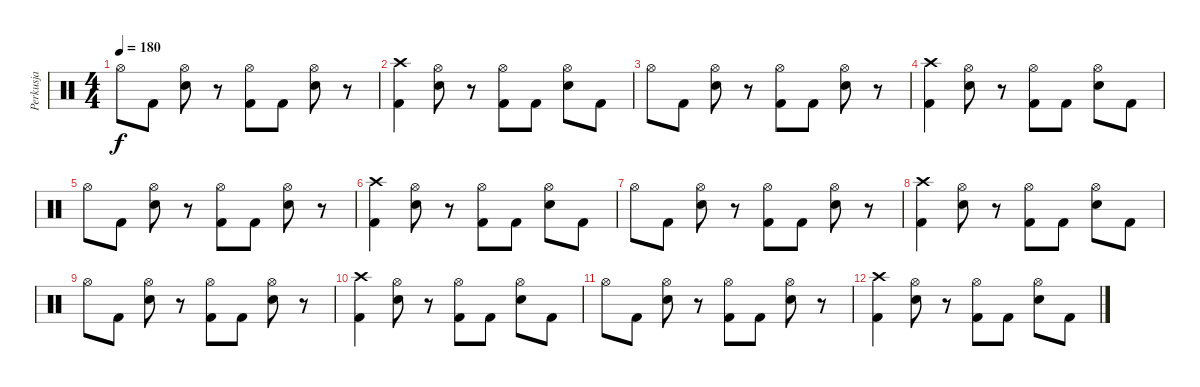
\track ("Perkusja" "Perkusja") {instrument percussion}
\staff {score}
\articulation defaults
\ts (4 4)
\tempo 180
\clef neutral
\ks c "Hi-Hat (open)".8{dy f} "Kick (hit) 2".8
("Hi-Hat (open)" "Electric Snare (hit)").8 r.8 ("Hi-Hat (open)" "Kick (hit) 2").8 "Kick (hit) 2".8 ("Hi-Hat (open)" "Electric Snare (hit)").8 r.8 |
("Crash high (hit)" "Kick (hit) 2").4 ("Hi-Hat (open)" "Electric Snare (hit)").8 r.8 ("Hi-Hat (open)" "Kick (hit) 2").8 "Kick (hit) 2".8 ("Hi-Hat (open)" "Electric Snare (hit)").8 "Kick (hit) 2".8 |
"Hi-Hat (open)".8 "Kick (hit) 2".8 ("Hi-Hat (open)" "Electric Snare (hit)").8 r.8 ("Hi-Hat (open)" "Kick (hit) 2").8 "Kick (hit) 2".8 ("Hi-Hat (open)" "Electric Snare (hit)").8 r.8 |
("Crash high (hit)" "Kick (hit) 2").4 ("Hi-Hat (open)" "Electric Snare (hit)").8 r.8 ("Hi-Hat (open)" "Kick (hit) 2").8 "Kick (hit) 2".8 ("Hi-Hat (open)" "Electric Snare (hit)").8 "Kick (hit) 2".8 |
"Hi-Hat (open)".8 "Kick (hit) 2".8 ("Hi-Hat (open)" "Electric Snare (hit)").8 r.8 ("Hi-Hat (open)" "Kick (hit) 2").8 "Kick (hit) 2".8 ("Hi-Hat (open)" "Electric Snare (hit)").8 r.8 |
("Crash high (hit)" "Kick (hit) 2").4 ("Hi-Hat (open)" "Electric Snare (hit)").8 r.8 ("Hi-Hat (open)" "Kick (hit) 2").8 "Kick (hit) 2".8 ("Hi-Hat (open)" "Electric Snare (hit)").8 "Kick (hit) 2".8 |
"Hi-Hat (open)".8 "Kick (hit) 2".8 ("Hi-Hat (open)" "Electric Snare (hit)").8 r.8 ("Hi-Hat (open)" "Kick (hit) 2").8 "Kick (hit) 2".8 ("Hi-Hat (open)" "Electric Snare (hit)").8 r.8 |
("Crash high (hit)" "Kick (hit) 2").4 ("Hi-Hat (open)" "Electric Snare (hit)").8 r.8 ("Hi-Hat (open)" "Kick (hit) 2").8 "Kick (hit) 2".8 ("Hi-Hat (open)" "Electric Snare (hit)").8 "Kick (hit) 2".8 |
"Hi-Hat (open)".8 "Kick (hit) 2".8 ("Hi-Hat (open)" "Electric Snare (hit)").8 r.8 ("Hi-Hat (open)" "Kick (hit) 2").8 "Kick (hit) 2".8 ("Hi-Hat (open)" "Electric Snare (hit)").8 r.8 |
("Crash high (hit)" "Kick (hit) 2").4 ("Hi-Hat (open)" "Electric Snare (hit)").8 r.8 ("Hi-Hat (open)" "Kick (hit) 2").8 "Kick (hit) 2".8 ("Hi-Hat (open)" "Electric Snare (hit)").8 "Kick (hit) 2".8 |
"Hi-Hat (open)".8 "Kick (hit) 2".8 ("Hi-Hat (open)" "Electric Snare (hit)").8 r.8 ("Hi-Hat (open)" "Kick (hit) 2").8 "Kick (hit) 2".8 ("Hi-Hat (open)" "Electric Snare (hit)").8 r.8 |
("Crash high (hit)" "Kick (hit) 2").4 ("Hi-Hat (open)" "Electric Snare (hit)").8 r.8 ("Hi-Hat (open)" "Kick (hit) 2").8 "Kick (hit) 2".8 ("Hi-Hat (open)" "Electric Snare (hit)").8 "Kick (hit) 2".8
